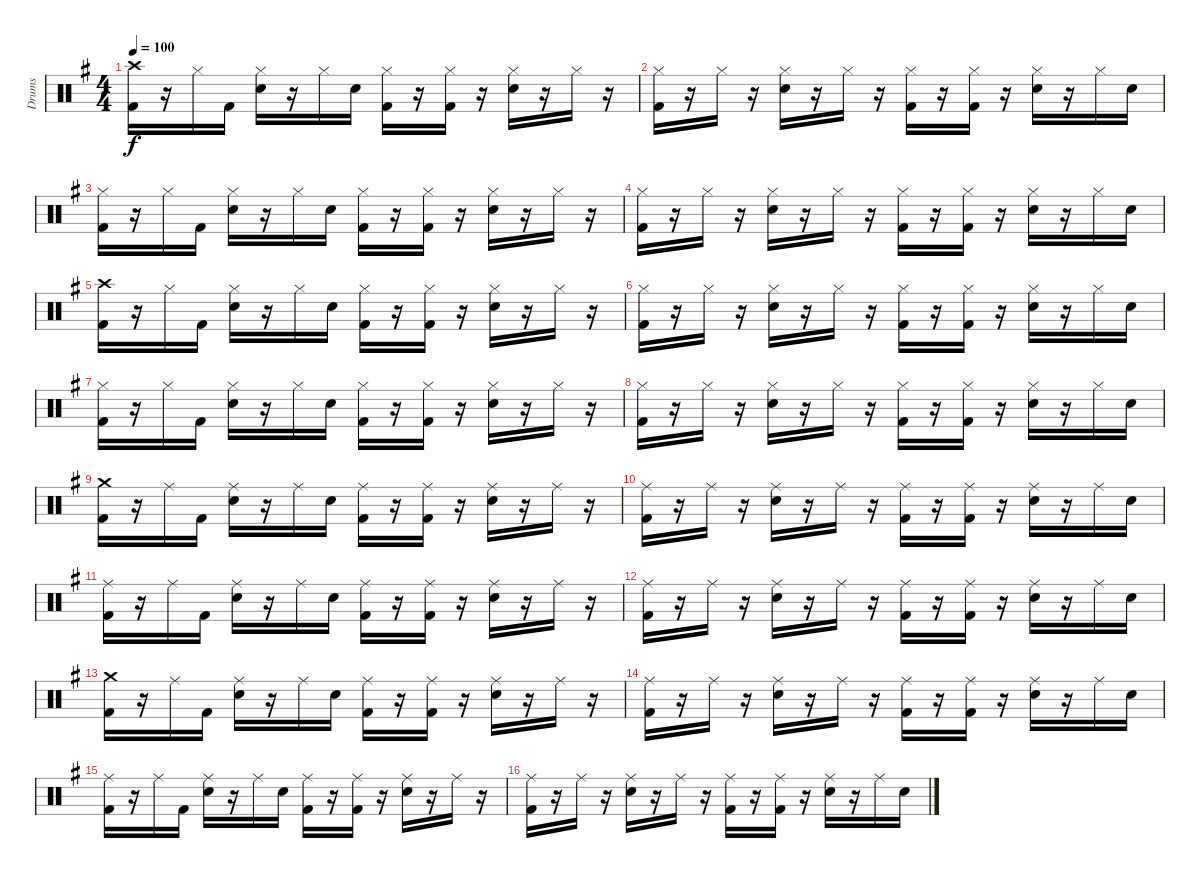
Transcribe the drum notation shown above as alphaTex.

\track ("Drums" "Drums") {instrument percussion}
\staff {score}
\articulation defaults
\ts (4 4)
\tempo 100
\clef neutral
\ks eminor
("Crash high (hit)" "Kick (hit) 2").16{dy f} r.16 "Hi-Hat (closed)".16 "Kick (hit) 2".16 ("Hi-Hat (closed)" "Electric Snare (hit)").16 r.16 "Hi-Hat (closed)".16 "Electric Snare (hit)".16 ("Hi-Hat (closed)" "Kick (hit) 2").16 r.16 ("Hi-Hat (closed)" "Kick (hit) 2").16 r.16 ("Hi-Hat (closed)" "Electric Snare (hit)").16 r.16 "Hi-Hat (closed)".16 r.16 |
("Hi-Hat (closed)" "Kick (hit) 2").16 r.16 "Hi-Hat (closed)".16 r.16 ("Hi-Hat (closed)" "Electric Snare (hit)").16 r.16 "Hi-Hat (closed)".16 r.16 ("Hi-Hat (closed)" "Kick (hit) 2").16 r.16 ("Hi-Hat (closed)" "Kick (hit) 2").16 r.16 ("Hi-Hat (closed)" "Electric Snare (hit)").16 r.16 "Hi-Hat (closed)".16 "Electric Snare (hit)".16 |
("Hi-Hat (closed)" "Kick (hit) 2").16 r.16 "Hi-Hat (closed)".16 "Kick (hit) 2".16 ("Hi-Hat (closed)" "Electric Snare (hit)").16 r.16 "Hi-Hat (closed)".16 "Electric Snare (hit)".16 ("Hi-Hat (closed)" "Kick (hit) 2").16 r.16 ("Hi-Hat (closed)" "Kick (hit) 2").16 r.16 ("Hi-Hat (closed)" "Electric Snare (hit)").16 r.16 "Hi-Hat (closed)".16 r.16 |
("Hi-Hat (closed)" "Kick (hit) 2").16 r.16 "Hi-Hat (closed)".16 r.16 ("Hi-Hat (closed)" "Electric Snare (hit)").16 r.16 "Hi-Hat (closed)".16 r.16 ("Hi-Hat (closed)" "Kick (hit) 2").16 r.16 ("Hi-Hat (closed)" "Kick (hit) 2").16 r.16 ("Hi-Hat (closed)" "Electric Snare (hit)").16 r.16 "Hi-Hat (closed)".16 "Electric Snare (hit)".16 |
("Crash high (hit)" "Kick (hit) 2").16 r.16 "Hi-Hat (closed)".16 "Kick (hit) 2".16 ("Hi-Hat (closed)" "Electric Snare (hit)").16 r.16 "Hi-Hat (closed)".16 "Electric Snare (hit)".16 ("Hi-Hat (closed)" "Kick (hit) 2").16 r.16 ("Hi-Hat (closed)" "Kick (hit) 2").16 r.16 ("Hi-Hat (closed)" "Electric Snare (hit)").16 r.16 "Hi-Hat (closed)".16 r.16 |
("Hi-Hat (closed)" "Kick (hit) 2").16 r.16 "Hi-Hat (closed)".16 r.16 ("Hi-Hat (closed)" "Electric Snare (hit)").16 r.16 "Hi-Hat (closed)".16 r.16 ("Hi-Hat (closed)" "Kick (hit) 2").16 r.16 ("Hi-Hat (closed)" "Kick (hit) 2").16 r.16 ("Hi-Hat (closed)" "Electric Snare (hit)").16 r.16 "Hi-Hat (closed)".16 "Electric Snare (hit)".16 |
("Hi-Hat (closed)" "Kick (hit) 2").16 r.16 "Hi-Hat (closed)".16 "Kick (hit) 2".16 ("Hi-Hat (closed)" "Electric Snare (hit)").16 r.16 "Hi-Hat (closed)".16 "Electric Snare (hit)".16 ("Hi-Hat (closed)" "Kick (hit) 2").16 r.16 ("Hi-Hat (closed)" "Kick (hit) 2").16 r.16 ("Hi-Hat (closed)" "Electric Snare (hit)").16 r.16 "Hi-Hat (closed)".16 r.16 |
("Hi-Hat (closed)" "Kick (hit) 2").16 r.16 "Hi-Hat (closed)".16 r.16 ("Hi-Hat (closed)" "Electric Snare (hit)").16 r.16 "Hi-Hat (closed)".16 r.16 ("Hi-Hat (closed)" "Kick (hit) 2").16 r.16 ("Hi-Hat (closed)" "Kick (hit) 2").16 r.16 ("Hi-Hat (closed)" "Electric Snare (hit)").16 r.16 "Hi-Hat (closed)".16 "Electric Snare (hit)".16 |
("Crash medium (hit)" "Kick (hit) 2").16 r.16 "Ride (middle)".16 "Kick (hit) 2".16 ("Ride (middle)" "Electric Snare (hit)").16 r.16 "Ride (middle)".16 "Electric Snare (hit)".16 ("Ride (middle)" "Kick (hit) 2").16 r.16 ("Ride (middle)" "Kick (hit) 2").16 r.16 ("Ride (middle)" "Electric Snare (hit)").16 r.16 "Ride (middle)".16 r.16 |
("Ride (middle)" "Kick (hit) 2").16 r.16 "Ride (middle)".16 r.16 ("Ride (middle)" "Electric Snare (hit)").16 r.16 "Ride (middle)".16 r.16 ("Ride (middle)" "Kick (hit) 2").16 r.16 ("Ride (middle)" "Kick (hit) 2").16 r.16 ("Ride (middle)" "Electric Snare (hit)").16 r.16 "Ride (middle)".16 "Electric Snare (hit)".16 |
("Ride (middle)" "Kick (hit) 2").16 r.16 "Ride (middle)".16 "Kick (hit) 2".16 ("Ride (middle)" "Electric Snare (hit)").16 r.16 "Ride (middle)".16 "Electric Snare (hit)".16 ("Ride (middle)" "Kick (hit) 2").16 r.16 ("Ride (middle)" "Kick (hit) 2").16 r.16 ("Ride (middle)" "Electric Snare (hit)").16 r.16 "Ride (middle)".16 r.16 |
("Ride (middle)" "Kick (hit) 2").16 r.16 "Ride (middle)".16 r.16 ("Ride (middle)" "Electric Snare (hit)").16 r.16 "Ride (middle)".16 r.16 ("Ride (middle)" "Kick (hit) 2").16 r.16 ("Ride (middle)" "Kick (hit) 2").16 r.16 ("Ride (middle)" "Electric Snare (hit)").16 r.16 "Ride (middle)".16 "Electric Snare (hit)".16 |
("Crash medium (hit)" "Kick (hit) 2").16 r.16 "Ride (middle)".16 "Kick (hit) 2".16 ("Ride (middle)" "Electric Snare (hit)").16 r.16 "Ride (middle)".16 "Electric Snare (hit)".16 ("Ride (middle)" "Kick (hit) 2").16 r.16 ("Ride (middle)" "Kick (hit) 2").16 r.16 ("Ride (middle)" "Electric Snare (hit)").16 r.16 "Ride (middle)".16 r.16 |
("Ride (middle)" "Kick (hit) 2").16 r.16 "Ride (middle)".16 r.16 ("Ride (middle)" "Electric Snare (hit)").16 r.16 "Ride (middle)".16 r.16 ("Ride (middle)" "Kick (hit) 2").16 r.16 ("Ride (middle)" "Kick (hit) 2").16 r.16 ("Ride (middle)" "Electric Snare (hit)").16 r.16 "Ride (middle)".16 "Electric Snare (hit)".16 |
("Ride (middle)" "Kick (hit) 2").16 r.16 "Ride (middle)".16 "Kick (hit) 2".16 ("Ride (middle)" "Electric Snare (hit)").16 r.16 "Ride (middle)".16 "Electric Snare (hit)".16 ("Ride (middle)" "Kick (hit) 2").16 r.16 ("Ride (middle)" "Kick (hit) 2").16 r.16 ("Ride (middle)" "Electric Snare (hit)").16 r.16 "Ride (middle)".16 r.16 |
("Ride (middle)" "Kick (hit) 2").16 r.16 "Ride (middle)".16 r.16 ("Ride (middle)" "Electric Snare (hit)").16 r.16 "Ride (middle)".16 r.16 ("Ride (middle)" "Kick (hit) 2").16 r.16 ("Ride (middle)" "Kick (hit) 2").16 r.16 ("Ride (middle)" "Electric Snare (hit)").16 r.16 "Ride (middle)".16 "Electric Snare (hit)".16
